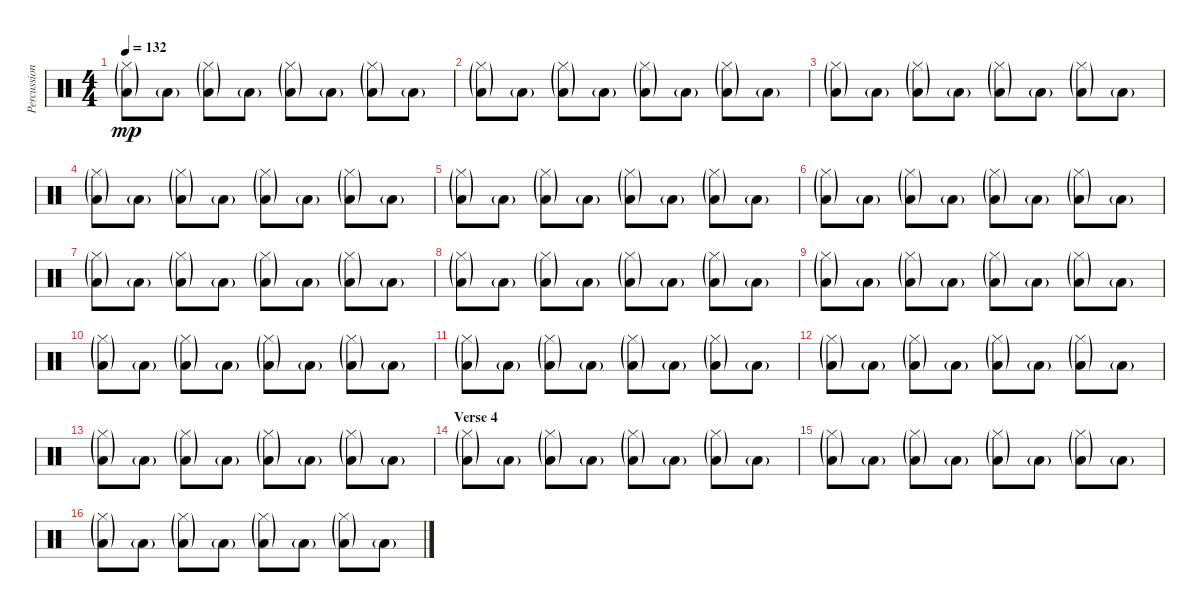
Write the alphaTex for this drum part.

\track ("Percussions" "Percussion") {instrument percussion}
\staff {score}
\articulation defaults
\ts (4 4)
\tempo 132
\clef neutral
\ks c
("Hi-Hat (closed)"{g} "Low Floor Tom (hit)"{g}).8{dy mp} "Low Floor Tom (hit)"{g}.8 ("Hi-Hat (closed)"{g} "Low Floor Tom (hit)"{g}).8 "Low Floor Tom (hit)"{g}.8 ("Hi-Hat (closed)"{g} "Low Floor Tom (hit)"{g}).8 "Low Floor Tom (hit)"{g}.8 ("Hi-Hat (closed)"{g} "Low Floor Tom (hit)"{g}).8 "Low Floor Tom (hit)"{g}.8 |
("Hi-Hat (closed)"{g} "Low Floor Tom (hit)"{g}).8 "Low Floor Tom (hit)"{g}.8 ("Hi-Hat (closed)"{g} "Low Floor Tom (hit)"{g}).8 "Low Floor Tom (hit)"{g}.8 ("Hi-Hat (closed)"{g} "Low Floor Tom (hit)"{g}).8 "Low Floor Tom (hit)"{g}.8 ("Hi-Hat (closed)"{g} "Low Floor Tom (hit)"{g}).8 "Low Floor Tom (hit)"{g}.8 |
("Hi-Hat (closed)"{g} "Low Floor Tom (hit)"{g}).8 "Low Floor Tom (hit)"{g}.8 ("Hi-Hat (closed)"{g} "Low Floor Tom (hit)"{g}).8 "Low Floor Tom (hit)"{g}.8 ("Hi-Hat (closed)"{g} "Low Floor Tom (hit)"{g}).8 "Low Floor Tom (hit)"{g}.8 ("Hi-Hat (closed)"{g} "Low Floor Tom (hit)"{g}).8 "Low Floor Tom (hit)"{g}.8 |
("Hi-Hat (closed)"{g} "Low Floor Tom (hit)"{g}).8 "Low Floor Tom (hit)"{g}.8 ("Hi-Hat (closed)"{g} "Low Floor Tom (hit)"{g}).8 "Low Floor Tom (hit)"{g}.8 ("Hi-Hat (closed)"{g} "Low Floor Tom (hit)"{g}).8 "Low Floor Tom (hit)"{g}.8 ("Hi-Hat (closed)"{g} "Low Floor Tom (hit)"{g}).8 "Low Floor Tom (hit)"{g}.8 |
("Hi-Hat (closed)"{g} "Low Floor Tom (hit)"{g}).8 "Low Floor Tom (hit)"{g}.8 ("Hi-Hat (closed)"{g} "Low Floor Tom (hit)"{g}).8 "Low Floor Tom (hit)"{g}.8 ("Hi-Hat (closed)"{g} "Low Floor Tom (hit)"{g}).8 "Low Floor Tom (hit)"{g}.8 ("Hi-Hat (closed)"{g} "Low Floor Tom (hit)"{g}).8 "Low Floor Tom (hit)"{g}.8 |
("Hi-Hat (closed)"{g} "Low Floor Tom (hit)"{g}).8 "Low Floor Tom (hit)"{g}.8 ("Hi-Hat (closed)"{g} "Low Floor Tom (hit)"{g}).8 "Low Floor Tom (hit)"{g}.8 ("Hi-Hat (closed)"{g} "Low Floor Tom (hit)"{g}).8 "Low Floor Tom (hit)"{g}.8 ("Hi-Hat (closed)"{g} "Low Floor Tom (hit)"{g}).8 "Low Floor Tom (hit)"{g}.8 |
("Hi-Hat (closed)"{g} "Low Floor Tom (hit)"{g}).8 "Low Floor Tom (hit)"{g}.8 ("Hi-Hat (closed)"{g} "Low Floor Tom (hit)"{g}).8 "Low Floor Tom (hit)"{g}.8 ("Hi-Hat (closed)"{g} "Low Floor Tom (hit)"{g}).8 "Low Floor Tom (hit)"{g}.8 ("Hi-Hat (closed)"{g} "Low Floor Tom (hit)"{g}).8 "Low Floor Tom (hit)"{g}.8 |
("Hi-Hat (closed)"{g} "Low Floor Tom (hit)"{g}).8 "Low Floor Tom (hit)"{g}.8 ("Hi-Hat (closed)"{g} "Low Floor Tom (hit)"{g}).8 "Low Floor Tom (hit)"{g}.8 ("Hi-Hat (closed)"{g} "Low Floor Tom (hit)"{g}).8 "Low Floor Tom (hit)"{g}.8 ("Hi-Hat (closed)"{g} "Low Floor Tom (hit)"{g}).8 "Low Floor Tom (hit)"{g}.8 |
("Hi-Hat (closed)"{g} "Low Floor Tom (hit)"{g}).8 "Low Floor Tom (hit)"{g}.8 ("Hi-Hat (closed)"{g} "Low Floor Tom (hit)"{g}).8 "Low Floor Tom (hit)"{g}.8 ("Hi-Hat (closed)"{g} "Low Floor Tom (hit)"{g}).8 "Low Floor Tom (hit)"{g}.8 ("Hi-Hat (closed)"{g} "Low Floor Tom (hit)"{g}).8 "Low Floor Tom (hit)"{g}.8 |
("Hi-Hat (closed)"{g} "Low Floor Tom (hit)"{g}).8 "Low Floor Tom (hit)"{g}.8 ("Hi-Hat (closed)"{g} "Low Floor Tom (hit)"{g}).8 "Low Floor Tom (hit)"{g}.8 ("Hi-Hat (closed)"{g} "Low Floor Tom (hit)"{g}).8 "Low Floor Tom (hit)"{g}.8 ("Hi-Hat (closed)"{g} "Low Floor Tom (hit)"{g}).8 "Low Floor Tom (hit)"{g}.8 |
("Hi-Hat (closed)"{g} "Low Floor Tom (hit)"{g}).8 "Low Floor Tom (hit)"{g}.8 ("Hi-Hat (closed)"{g} "Low Floor Tom (hit)"{g}).8 "Low Floor Tom (hit)"{g}.8 ("Hi-Hat (closed)"{g} "Low Floor Tom (hit)"{g}).8 "Low Floor Tom (hit)"{g}.8 ("Hi-Hat (closed)"{g} "Low Floor Tom (hit)"{g}).8 "Low Floor Tom (hit)"{g}.8 |
("Hi-Hat (closed)"{g} "Low Floor Tom (hit)"{g}).8 "Low Floor Tom (hit)"{g}.8 ("Hi-Hat (closed)"{g} "Low Floor Tom (hit)"{g}).8 "Low Floor Tom (hit)"{g}.8 ("Hi-Hat (closed)"{g} "Low Floor Tom (hit)"{g}).8 "Low Floor Tom (hit)"{g}.8 ("Hi-Hat (closed)"{g} "Low Floor Tom (hit)"{g}).8 "Low Floor Tom (hit)"{g}.8 |
("Hi-Hat (closed)"{g} "Low Floor Tom (hit)"{g}).8 "Low Floor Tom (hit)"{g}.8 ("Hi-Hat (closed)"{g} "Low Floor Tom (hit)"{g}).8 "Low Floor Tom (hit)"{g}.8 ("Hi-Hat (closed)"{g} "Low Floor Tom (hit)"{g}).8 "Low Floor Tom (hit)"{g}.8 ("Hi-Hat (closed)"{g} "Low Floor Tom (hit)"{g}).8 "Low Floor Tom (hit)"{g}.8 |
\section ("" "Verse 4")
("Hi-Hat (closed)"{g} "Low Floor Tom (hit)"{g}).8 "Low Floor Tom (hit)"{g}.8 ("Hi-Hat (closed)"{g} "Low Floor Tom (hit)"{g}).8 "Low Floor Tom (hit)"{g}.8 ("Hi-Hat (closed)"{g} "Low Floor Tom (hit)"{g}).8 "Low Floor Tom (hit)"{g}.8 ("Hi-Hat (closed)"{g} "Low Floor Tom (hit)"{g}).8 "Low Floor Tom (hit)"{g}.8 |
("Hi-Hat (closed)"{g} "Low Floor Tom (hit)"{g}).8 "Low Floor Tom (hit)"{g}.8 ("Hi-Hat (closed)"{g} "Low Floor Tom (hit)"{g}).8 "Low Floor Tom (hit)"{g}.8 ("Hi-Hat (closed)"{g} "Low Floor Tom (hit)"{g}).8 "Low Floor Tom (hit)"{g}.8 ("Hi-Hat (closed)"{g} "Low Floor Tom (hit)"{g}).8 "Low Floor Tom (hit)"{g}.8 |
("Hi-Hat (closed)"{g} "Low Floor Tom (hit)"{g}).8 "Low Floor Tom (hit)"{g}.8 ("Hi-Hat (closed)"{g} "Low Floor Tom (hit)"{g}).8 "Low Floor Tom (hit)"{g}.8 ("Hi-Hat (closed)"{g} "Low Floor Tom (hit)"{g}).8 "Low Floor Tom (hit)"{g}.8 ("Hi-Hat (closed)"{g} "Low Floor Tom (hit)"{g}).8 "Low Floor Tom (hit)"{g}.8
